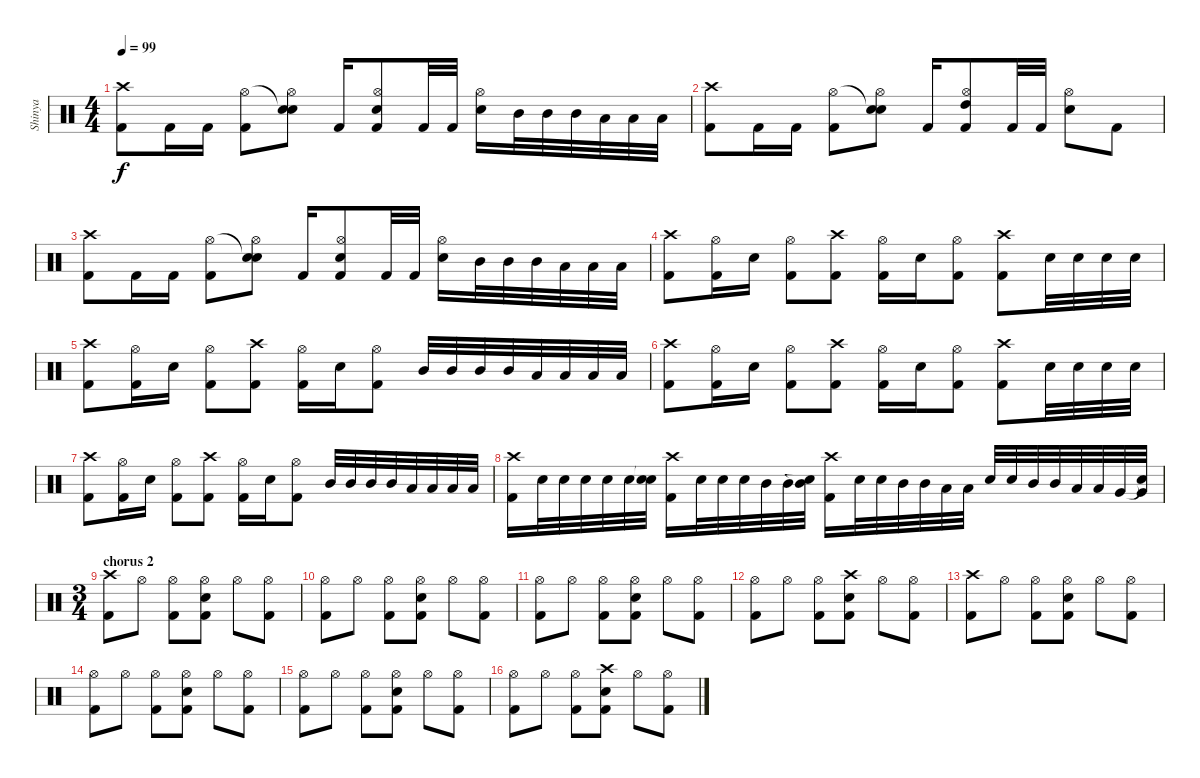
\track ("Shinya" "Shinya") {instrument percussion}
\staff {score}
\articulation defaults
\ts (4 4)
\tempo 99
\clef neutral
\ks c
("Crash high (hit)" "Kick (hit) 2").8{dy f} "Kick (hit) 2".16 "Kick (hit) 2".16 ("Hi-Hat (open)" "Kick (hit) 2").8 ("Snare (hit)"{t} "Hi-Hat (open)" "Snare (hit) 2").8 "Kick (hit) 2".16 ("Hi-Hat (open)" "Snare (hit) 2" "Kick (hit) 2").8 "Kick (hit) 2".32 "Kick (hit) 2".32 ("Hi-Hat (open)" "Snare (hit) 2").16 "Mid Tom (hit)".32 "Mid Tom (hit)".32 "Mid Tom (hit)".32 "Low Tom (hit)".32 "Low Tom (hit)".32 "Low Tom (hit)".32 |
("Crash high (hit)" "Kick (hit) 2").8 "Kick (hit) 2".16 "Kick (hit) 2".16 ("Hi-Hat (open)" "Kick (hit) 2").8 ("Snare (hit)"{t} "Hi-Hat (open)" "Snare (hit) 2").8 "Kick (hit) 2".16 ("Hi-Hat (open)" "High Tom (hit)" "Kick (hit) 2").8 "Kick (hit) 2".32 "Kick (hit) 2".32 ("Hi-Hat (open)" "Snare (hit) 2").8 "Kick (hit) 2".8 |
("Crash high (hit)" "Kick (hit) 2").8 "Kick (hit) 2".16 "Kick (hit) 2".16 ("Hi-Hat (open)" "Kick (hit) 2").8 ("Snare (hit)"{t} "Hi-Hat (open)" "Snare (hit) 2").8 "Kick (hit) 2".16 ("Hi-Hat (open)" "Snare (hit) 2" "Kick (hit) 2").8 "Kick (hit) 2".32 "Kick (hit) 2".32 ("Hi-Hat (open)" "Snare (hit) 2").16 "Mid Tom (hit)".32 "Mid Tom (hit)".32 "Mid Tom (hit)".32 "Low Tom (hit)".32 "Low Tom (hit)".32 "Low Tom (hit)".32 |
("Crash high (hit)" "Kick (hit) 2").8 ("Hi-Hat (open)" "Kick (hit) 2").16 "Snare (hit) 2".16 ("Hi-Hat (open)" "Kick (hit) 2").8 ("Crash high (hit)" "Kick (hit) 2").8 ("Hi-Hat (open)" "Kick (hit) 2").16 "Snare (hit) 2".16 ("Hi-Hat (open)" "Kick (hit) 2").8 ("Crash high (hit)" "Kick (hit) 2").8 "Snare (hit) 2".32 "Snare (hit) 2".32 "Snare (hit) 2".32 "Snare (hit) 2".32 |
("Crash high (hit)" "Kick (hit) 2").8 ("Hi-Hat (open)" "Kick (hit) 2").16 "Snare (hit) 2".16 ("Hi-Hat (open)" "Kick (hit) 2").8 ("Crash high (hit)" "Kick (hit) 2").8 ("Hi-Hat (open)" "Kick (hit) 2").16 "Snare (hit) 2".16 ("Hi-Hat (open)" "Kick (hit) 2").8 "Mid Tom (hit)".32 "Mid Tom (hit)".32 "Mid Tom (hit)".32 "Mid Tom (hit)".32 "Low Tom (hit)".32 "Low Tom (hit)".32 "Low Tom (hit)".32 "Low Tom (hit)".32 |
("Crash high (hit)" "Kick (hit) 2").8 ("Hi-Hat (open)" "Kick (hit) 2").16 "Snare (hit) 2".16 ("Hi-Hat (open)" "Kick (hit) 2").8 ("Crash high (hit)" "Kick (hit) 2").8 ("Hi-Hat (open)" "Kick (hit) 2").16 "Snare (hit) 2".16 ("Hi-Hat (open)" "Kick (hit) 2").8 ("Crash high (hit)" "Kick (hit) 2").8 "Snare (hit) 2".32 "Snare (hit) 2".32 "Snare (hit) 2".32 "Snare (hit) 2".32 |
("Crash high (hit)" "Kick (hit) 2").8 ("Hi-Hat (open)" "Kick (hit) 2").16 "Snare (hit) 2".16 ("Hi-Hat (open)" "Kick (hit) 2").8 ("Crash high (hit)" "Kick (hit) 2").8 ("Hi-Hat (open)" "Kick (hit) 2").16 "Snare (hit) 2".16 ("Hi-Hat (open)" "Kick (hit) 2").8 "Mid Tom (hit)".32 "Mid Tom (hit)".32 "Mid Tom (hit)".32 "Mid Tom (hit)".32 "Low Tom (hit)".32 "Low Tom (hit)".32 "Low Tom (hit)".32 "Low Tom (hit)".32 |
("Crash high (hit)" "Kick (hit) 2").16 "Snare (hit) 2".32 "Snare (hit) 2".32 "Snare (hit) 2".32 "Snare (hit) 2".32 "Snare (hit) 2".32 ("Snare (hit)"{t} "Snare (hit) 2").32 ("Crash high (hit)" "Kick (hit) 2").16 "Snare (hit) 2".32 "Snare (hit) 2".32 "Snare (hit) 2".32 "Mid Tom (hit)".32 "Mid Tom (hit)".32 ("Snare (hit)"{t} "Mid Tom (hit)").32 ("Crash high (hit)" "Kick (hit) 2").16 "Snare (hit) 2".32 "Snare (hit) 2".32 "Mid Tom (hit)".32 "Mid Tom (hit)".32 "Low Tom (hit)".32 "Low Tom (hit)".32 "Snare (hit) 2".32 "Snare (hit) 2".32 "Mid Tom (hit)".32 "Mid Tom (hit)".32 "Low Tom (hit)".32 "Low Tom (hit)".32 "Very Low Tom (hit)".32 ("Snare (hit)"{t} "Very Low Tom (hit)").32 |
\ts (3 4)
\section ("" "chorus 2")
("Crash high (hit)" "Kick (hit) 2").8 "Hi-Hat (open)".8 ("Hi-Hat (open)" "Kick (hit) 2").8 ("Hi-Hat (open)" "Snare (hit) 2" "Kick (hit) 2").8 "Hi-Hat (open)".8 ("Hi-Hat (open)" "Kick (hit) 2").8 |
("Hi-Hat (open)" "Kick (hit) 2").8 "Hi-Hat (open)".8 ("Hi-Hat (open)" "Kick (hit) 2").8 ("Hi-Hat (open)" "Snare (hit) 2" "Kick (hit) 2").8 "Hi-Hat (open)".8 ("Hi-Hat (open)" "Kick (hit) 2").8 |
("Hi-Hat (open)" "Kick (hit) 2").8 "Hi-Hat (open)".8 ("Hi-Hat (open)" "Kick (hit) 2").8 ("Hi-Hat (open)" "Snare (hit) 2" "Kick (hit) 2").8 "Hi-Hat (open)".8 ("Hi-Hat (open)" "Kick (hit) 2").8 |
("Hi-Hat (open)" "Kick (hit) 2").8 "Hi-Hat (open)".8 ("Hi-Hat (open)" "Kick (hit) 2").8 ("Crash high (hit)" "Snare (hit) 2" "Kick (hit) 2").8 "Hi-Hat (open)".8 ("Hi-Hat (open)" "Kick (hit) 2").8 |
("Crash high (hit)" "Kick (hit) 2").8 "Hi-Hat (open)".8 ("Hi-Hat (open)" "Kick (hit) 2").8 ("Hi-Hat (open)" "Snare (hit) 2" "Kick (hit) 2").8 "Hi-Hat (open)".8 ("Hi-Hat (open)" "Kick (hit) 2").8 |
("Hi-Hat (open)" "Kick (hit) 2").8 "Hi-Hat (open)".8 ("Hi-Hat (open)" "Kick (hit) 2").8 ("Hi-Hat (open)" "Snare (hit) 2" "Kick (hit) 2").8 "Hi-Hat (open)".8 ("Hi-Hat (open)" "Kick (hit) 2").8 |
("Hi-Hat (open)" "Kick (hit) 2").8 "Hi-Hat (open)".8 ("Hi-Hat (open)" "Kick (hit) 2").8 ("Hi-Hat (open)" "Snare (hit) 2" "Kick (hit) 2").8 "Hi-Hat (open)".8 ("Hi-Hat (open)" "Kick (hit) 2").8 |
("Hi-Hat (open)" "Kick (hit) 2").8 "Hi-Hat (open)".8 ("Hi-Hat (open)" "Kick (hit) 2").8 ("Crash high (hit)" "Snare (hit) 2" "Kick (hit) 2").8 "Hi-Hat (open)".8 ("Hi-Hat (open)" "Kick (hit) 2").8
